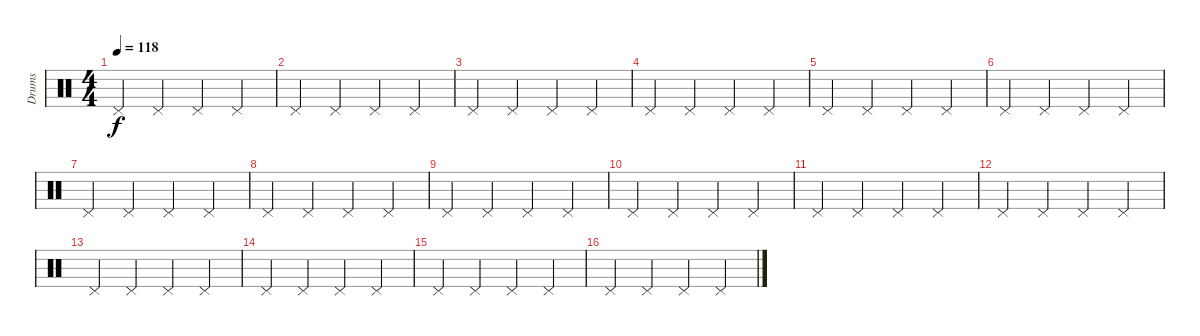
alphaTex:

\track ("Drums" "Drums") {instrument percussion}
\staff {score}
\articulation defaults
\ts (4 4)
\tempo 118
\clef neutral
\ks c "Pedal Hi-Hat (hit)".4{dy f} "Pedal Hi-Hat (hit)".4 "Pedal Hi-Hat (hit)".4 "Pedal Hi-Hat (hit)".4
|
"Pedal Hi-Hat (hit)".4 "Pedal Hi-Hat (hit)".4 "Pedal Hi-Hat (hit)".4 "Pedal Hi-Hat (hit)".4 |
"Pedal Hi-Hat (hit)".4 "Pedal Hi-Hat (hit)".4 "Pedal Hi-Hat (hit)".4 "Pedal Hi-Hat (hit)".4 |
"Pedal Hi-Hat (hit)".4 "Pedal Hi-Hat (hit)".4 "Pedal Hi-Hat (hit)".4 "Pedal Hi-Hat (hit)".4 |
"Pedal Hi-Hat (hit)".4 "Pedal Hi-Hat (hit)".4 "Pedal Hi-Hat (hit)".4 "Pedal Hi-Hat (hit)".4 |
"Pedal Hi-Hat (hit)".4 "Pedal Hi-Hat (hit)".4 "Pedal Hi-Hat (hit)".4 "Pedal Hi-Hat (hit)".4 |
"Pedal Hi-Hat (hit)".4 "Pedal Hi-Hat (hit)".4 "Pedal Hi-Hat (hit)".4 "Pedal Hi-Hat (hit)".4 |
"Pedal Hi-Hat (hit)".4 "Pedal Hi-Hat (hit)".4 "Pedal Hi-Hat (hit)".4 "Pedal Hi-Hat (hit)".4 |
"Pedal Hi-Hat (hit)".4 "Pedal Hi-Hat (hit)".4 "Pedal Hi-Hat (hit)".4 "Pedal Hi-Hat (hit)".4 |
"Pedal Hi-Hat (hit)".4 "Pedal Hi-Hat (hit)".4 "Pedal Hi-Hat (hit)".4 "Pedal Hi-Hat (hit)".4 |
"Pedal Hi-Hat (hit)".4 "Pedal Hi-Hat (hit)".4 "Pedal Hi-Hat (hit)".4 "Pedal Hi-Hat (hit)".4 |
"Pedal Hi-Hat (hit)".4 "Pedal Hi-Hat (hit)".4 "Pedal Hi-Hat (hit)".4 "Pedal Hi-Hat (hit)".4 |
"Pedal Hi-Hat (hit)".4 "Pedal Hi-Hat (hit)".4 "Pedal Hi-Hat (hit)".4 "Pedal Hi-Hat (hit)".4 |
"Pedal Hi-Hat (hit)".4 "Pedal Hi-Hat (hit)".4 "Pedal Hi-Hat (hit)".4 "Pedal Hi-Hat (hit)".4 |
"Pedal Hi-Hat (hit)".4 "Pedal Hi-Hat (hit)".4 "Pedal Hi-Hat (hit)".4 "Pedal Hi-Hat (hit)".4 |
"Pedal Hi-Hat (hit)".4 "Pedal Hi-Hat (hit)".4 "Pedal Hi-Hat (hit)".4 "Pedal Hi-Hat (hit)".4
